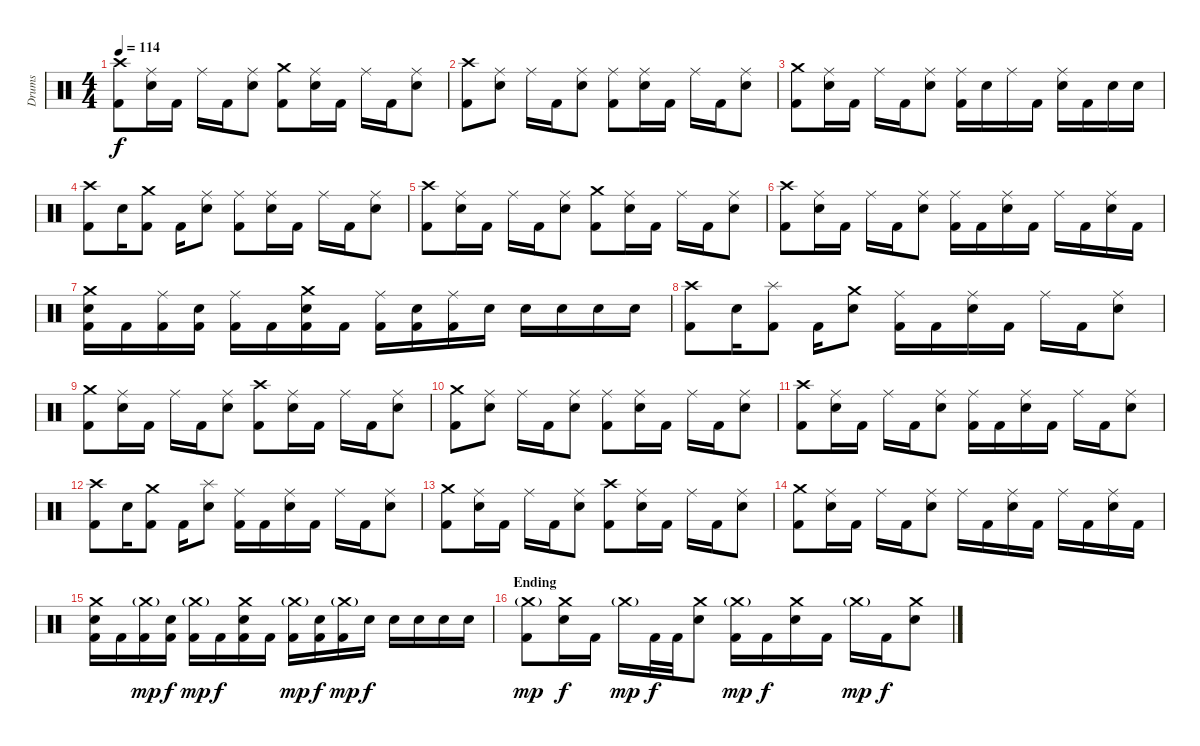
\track ("Drums" "Drums") {instrument percussion}
\staff {score}
\articulation defaults
\ts (4 4)
\tempo 114
\clef neutral
\ks c
("Crash high (hit)" "Kick (hit) 2").8{dy f} ("Ride (middle)" "Snare (hit) 2").16 "Kick (hit) 2".16 "Ride (middle)".16 "Kick (hit) 2".16 ("Ride (middle)" "Snare (hit) 2").8 ("Crash medium (hit)" "Kick (hit) 2").8 ("Ride (middle)" "Snare (hit) 2").16 "Kick (hit) 2".16 "Ride (middle)".16 "Kick (hit) 2".16 ("Ride (middle)" "Snare (hit) 2").8 |
("Crash high (hit)" "Kick (hit) 2").8 ("Ride (middle)" "Snare (hit) 2").8 "Ride (middle)".16 "Kick (hit) 2".16 ("Ride (middle)" "Snare (hit) 2").8 ("Ride (middle)" "Kick (hit) 2").8 ("Ride (middle)" "Snare (hit) 2").16 "Kick (hit) 2".16 "Ride (middle)".16 "Kick (hit) 2".16 ("Ride (middle)" "Snare (hit) 2").8 |
("Crash medium (hit)" "Kick (hit) 2").8 ("Ride (middle)" "Snare (hit) 2").16 "Kick (hit) 2".16 "Ride (middle)".16 "Kick (hit) 2".16 ("Ride (middle)" "Snare (hit) 2").8 ("Ride (middle)" "Kick (hit) 2").16 "Snare (hit) 2".16 "Ride (middle)".16 "Kick (hit) 2".16 ("Ride (middle)" "Snare (hit) 2").16 "Kick (hit) 2".16 "Snare (hit) 2".16 "Snare (hit) 2".16 |
("Crash high (hit)" "Kick (hit) 2").8 "Snare (hit) 2".16 ("Crash medium (hit)" "Kick (hit) 2").8 "Kick (hit) 2".16 ("Ride (middle)" "Snare (hit) 2").8 ("Ride (middle)" "Kick (hit) 2").8 ("Ride (middle)" "Snare (hit) 2").16 "Kick (hit) 2".16 "Ride (middle)".16 "Kick (hit) 2".16 ("Ride (middle)" "Snare (hit) 2").8 |
("Crash high (hit)" "Kick (hit) 2").8 ("Ride (middle)" "Snare (hit) 2").16 "Kick (hit) 2".16 "Ride (middle)".16 "Kick (hit) 2".16 ("Ride (middle)" "Snare (hit) 2").8 ("Crash medium (hit)" "Kick (hit) 2").8 ("Ride (middle)" "Snare (hit) 2").16 "Kick (hit) 2".16 "Ride (middle)".16 "Kick (hit) 2".16 ("Ride (middle)" "Snare (hit) 2").8 |
("Crash high (hit)" "Kick (hit) 2").8 ("Ride (middle)" "Snare (hit) 2").16 "Kick (hit) 2".16 "Ride (middle)".16 "Kick (hit) 2".16 ("Ride (middle)" "Snare (hit) 2").8 ("Ride (middle)" "Kick (hit) 2").16 "Kick (hit) 2".16 ("Ride (middle)" "Snare (hit) 2").16 "Kick (hit) 2".16 "Ride (middle)".16 "Kick (hit) 2".16 ("Ride (middle)" "Snare (hit) 2").16 "Kick (hit) 2".16 |
("Crash medium (hit)" "Snare (hit) 2" "Kick (hit) 2").16 "Kick (hit) 2".16 ("Ride (middle)" "Kick (hit) 2").16 ("Snare (hit) 2" "Kick (hit) 2").16 ("Ride (middle)" "Kick (hit) 2").16 "Kick (hit) 2".16 ("Crash medium (hit)" "Snare (hit) 2" "Kick (hit) 2").16 "Kick (hit) 2".16 ("Ride (middle)" "Kick (hit) 2").16 ("Snare (hit) 2" "Kick (hit) 2").16 ("Ride (middle)" "Kick (hit) 2").16 "Snare (hit) 2".16 "Snare (hit) 2".16 "Snare (hit) 2".16 "Snare (hit) 2".16 "Snare (hit) 2".16 |
("Crash high (hit)" "Kick (hit) 2").8 "Snare (hit) 2".16 ("Splash (hit)" "Kick (hit) 2").8 "Kick (hit) 2".16 ("Crash medium (hit)" "Snare (hit) 2").8 ("Ride (middle)" "Kick (hit) 2").16 "Kick (hit) 2".16 ("Ride (middle)" "Snare (hit) 2").16 "Kick (hit) 2".16 "Ride (middle)".16 "Kick (hit) 2".16 ("Ride (middle)" "Snare (hit) 2").8 |
("Crash medium (hit)" "Kick (hit) 2").8 ("Ride (middle)" "Snare (hit) 2").16 "Kick (hit) 2".16 "Ride (middle)".16 "Kick (hit) 2".16 ("Ride (middle)" "Snare (hit) 2").8 ("Crash high (hit)" "Kick (hit) 2").8 ("Ride (middle)" "Snare (hit) 2").16 "Kick (hit) 2".16 "Ride (middle)".16 "Kick (hit) 2".16 ("Ride (middle)" "Snare (hit) 2").8 |
("Crash medium (hit)" "Kick (hit) 2").8 ("Ride (middle)" "Snare (hit) 2").8 "Ride (middle)".16 "Kick (hit) 2".16 ("Ride (middle)" "Snare (hit) 2").8 ("Ride (middle)" "Kick (hit) 2").8 ("Ride (middle)" "Snare (hit) 2").16 "Kick (hit) 2".16 "Ride (middle)".16 "Kick (hit) 2".16 ("Ride (middle)" "Snare (hit) 2").8 |
("Crash high (hit)" "Kick (hit) 2").8 ("Ride (middle)" "Snare (hit) 2").16 "Kick (hit) 2".16 "Ride (middle)".16 "Kick (hit) 2".16 ("Ride (middle)" "Snare (hit) 2").8 ("Ride (middle)" "Kick (hit) 2").16 "Kick (hit) 2".16 ("Ride (middle)" "Snare (hit) 2").16 "Kick (hit) 2".16 "Ride (middle)".16 "Kick (hit) 2".16 ("Ride (middle)" "Snare (hit) 2").8 |
("Crash high (hit)" "Kick (hit) 2").8 "Snare (hit) 2".16 ("Crash medium (hit)" "Kick (hit) 2").8 "Kick (hit) 2".16 ("Splash (hit)" "Snare (hit) 2").8 ("Ride (middle)" "Kick (hit) 2").16 "Kick (hit) 2".16 ("Ride (middle)" "Snare (hit) 2").16 "Kick (hit) 2".16 "Ride (middle)".16 "Kick (hit) 2".16 ("Ride (middle)" "Snare (hit) 2").8 |
("Crash medium (hit)" "Kick (hit) 2").8 ("Ride (middle)" "Snare (hit) 2").16 "Kick (hit) 2".16 "Ride (middle)".16 "Kick (hit) 2".16 ("Ride (middle)" "Snare (hit) 2").8 ("Crash high (hit)" "Kick (hit) 2").8 ("Ride (middle)" "Snare (hit) 2").16 "Kick (hit) 2".16 "Ride (middle)".16 "Kick (hit) 2".16 ("Ride (middle)" "Snare (hit) 2").8 |
("Crash medium (hit)" "Kick (hit) 2").8 ("Ride (middle)" "Snare (hit) 2").16 "Kick (hit) 2".16 "Ride (middle)".16 "Kick (hit) 2".16 ("Ride (middle)" "Snare (hit) 2").8 "Ride (middle)".16 "Kick (hit) 2".16 ("Ride (middle)" "Snare (hit) 2").16 "Kick (hit) 2".16 "Ride (middle)".16 "Kick (hit) 2".16 ("Ride (middle)" "Snare (hit) 2").16 "Kick (hit) 2".16 |
("Crash medium (hit)" "Snare (hit) 2" "Kick (hit) 2").16 "Kick (hit) 2".16 ("Crash medium (hit)"{g} "Kick (hit) 2").16{dy mp} ("Snare (hit) 2" "Kick (hit) 2").16{dy f} ("Crash medium (hit)"{g} "Kick (hit) 2").16{dy mp} "Kick (hit) 2".16{dy f} ("Crash medium (hit)" "Snare (hit) 2" "Kick (hit) 2").16 "Kick (hit) 2".16 ("Crash medium (hit)"{g} "Kick (hit) 2").16{dy mp} ("Snare (hit) 2" "Kick (hit) 2").16{dy f} ("Crash medium (hit)"{g} "Kick (hit) 2").16{dy mp} "Snare (hit) 2".16{dy f} "Snare (hit) 2".16 "Snare (hit) 2".16 "Snare (hit) 2".16 "Snare (hit) 2".16 |
\section ("" "Ending")
("Crash medium (hit)"{g} "Kick (hit) 2").8{dy mp} ("Crash medium (hit)" "Snare (hit) 2").16{dy f} "Kick (hit) 2".16 "Crash medium (hit)"{g}.16{dy mp} "Kick (hit) 2".32{dy f} "Kick (hit) 2".32 ("Crash medium (hit)" "Snare (hit) 2").8 ("Crash medium (hit)"{g} "Kick (hit) 2").16{dy mp} "Kick (hit) 2".16{dy f} ("Crash medium (hit)" "Snare (hit) 2").16 "Kick (hit) 2".16 "Crash medium (hit)"{g}.16{dy mp} "Kick (hit) 2".16{dy f} ("Crash medium (hit)" "Snare (hit) 2").8
